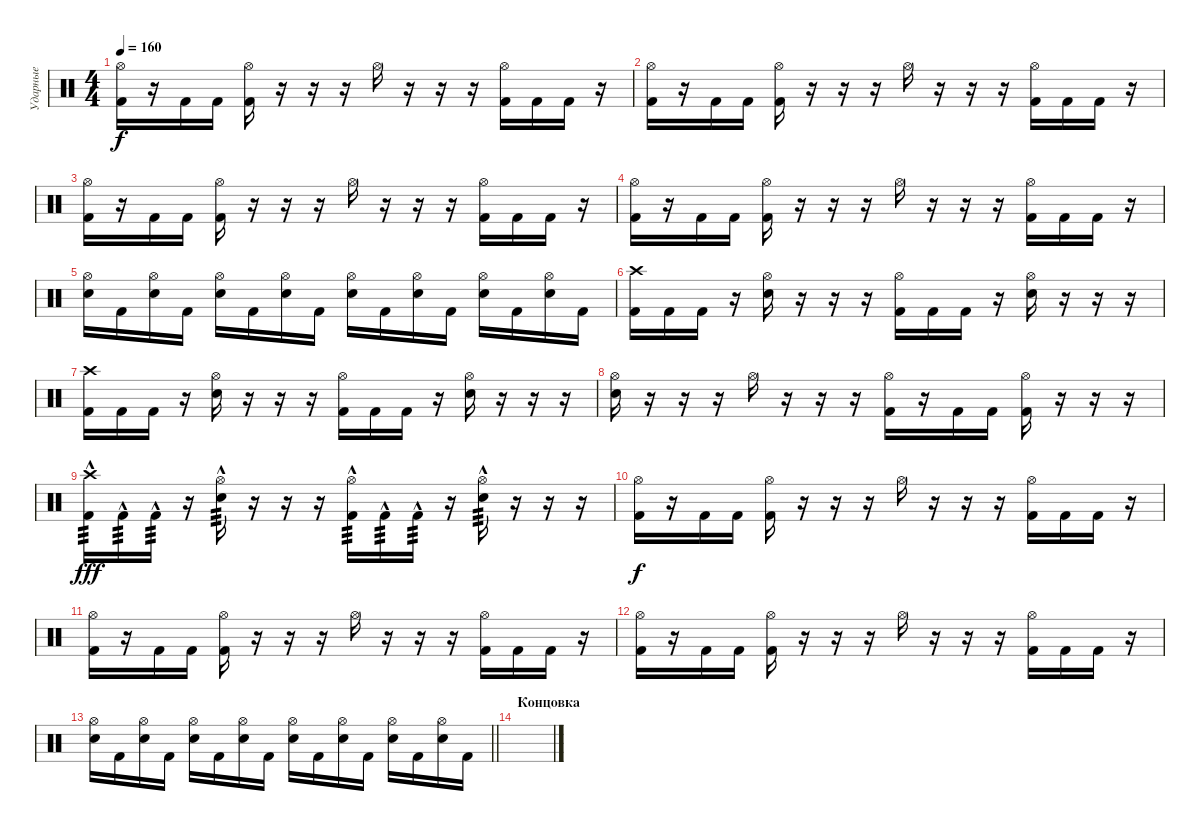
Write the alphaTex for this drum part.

\track ("Ударные" "Ударные") {instrument percussion}
\staff {score}
\articulation defaults
\ts (4 4)
\tempo 160
\clef neutral
\ks c
("Hi-Hat (open)" "Kick (hit) 2").16{dy f} r.16 "Kick (hit) 2".16 "Kick (hit) 2".16 ("Hi-Hat (open)" "Kick (hit) 2").16 r.16 r.16 r.16 "Hi-Hat (open)".16 r.16 r.16 r.16 ("Hi-Hat (open)" "Kick (hit) 2").16 "Kick (hit) 2".16 "Kick (hit) 2".16 r.16 |
("Hi-Hat (open)" "Kick (hit) 2").16 r.16 "Kick (hit) 2".16 "Kick (hit) 2".16 ("Hi-Hat (open)" "Kick (hit) 2").16 r.16 r.16 r.16 "Hi-Hat (open)".16 r.16 r.16 r.16 ("Hi-Hat (open)" "Kick (hit) 2").16 "Kick (hit) 2".16 "Kick (hit) 2".16 r.16 |
("Hi-Hat (open)" "Kick (hit) 2").16 r.16 "Kick (hit) 2".16 "Kick (hit) 2".16 ("Hi-Hat (open)" "Kick (hit) 2").16 r.16 r.16 r.16 "Hi-Hat (open)".16 r.16 r.16 r.16 ("Hi-Hat (open)" "Kick (hit) 2").16 "Kick (hit) 2".16 "Kick (hit) 2".16 r.16 |
("Hi-Hat (open)" "Kick (hit) 2").16 r.16 "Kick (hit) 2".16 "Kick (hit) 2".16 ("Hi-Hat (open)" "Kick (hit) 2").16 r.16 r.16 r.16 "Hi-Hat (open)".16 r.16 r.16 r.16 ("Hi-Hat (open)" "Kick (hit) 2").16 "Kick (hit) 2".16 "Kick (hit) 2".16 r.16 |
("Hi-Hat (open)" "Electric Snare (hit)").16 "Kick (hit) 2".16 ("Hi-Hat (open)" "Electric Snare (hit)").16 "Kick (hit) 2".16 ("Hi-Hat (open)" "Electric Snare (hit)").16 "Kick (hit) 2".16 ("Hi-Hat (open)" "Electric Snare (hit)").16 "Kick (hit) 2".16 ("Hi-Hat (open)" "Electric Snare (hit)").16 "Kick (hit) 2".16 ("Hi-Hat (open)" "Electric Snare (hit)").16 "Kick (hit) 2".16 ("Hi-Hat (open)" "Electric Snare (hit)").16 "Kick (hit) 2".16 ("Hi-Hat (open)" "Electric Snare (hit)").16 "Kick (hit) 2".16 |
("Crash high (hit)" "Kick (hit) 2").16 "Kick (hit) 2".16 "Kick (hit) 2".16 r.16 ("Hi-Hat (open)" "Electric Snare (hit)").16 r.16 r.16 r.16 ("Hi-Hat (open)" "Kick (hit) 2").16 "Kick (hit) 2".16 "Kick (hit) 2".16 r.16 ("Hi-Hat (open)" "Electric Snare (hit)").16 r.16 r.16 r.16 |
("Crash high (hit)" "Kick (hit) 2").16 "Kick (hit) 2".16 "Kick (hit) 2".16 r.16 ("Hi-Hat (open)" "Electric Snare (hit)").16 r.16 r.16 r.16 ("Hi-Hat (open)" "Kick (hit) 2").16 "Kick (hit) 2".16 "Kick (hit) 2".16 r.16 ("Hi-Hat (open)" "Electric Snare (hit)").16 r.16 r.16 r.16 |
("Hi-Hat (open)" "Electric Snare (hit)").16 r.16 r.16 r.16 "Hi-Hat (open)".16 r.16 r.16 r.16 ("Hi-Hat (open)" "Kick (hit) 2").16 r.16 "Kick (hit) 2".16 "Kick (hit) 2".16 ("Hi-Hat (open)" "Kick (hit) 2").16 r.16 r.16 r.16 |
("Crash high (hit)"{hac} "Kick (hit) 2"{hac}).16{tp 3 dy fff} "Kick (hit) 2"{hac}.16{tp 3} "Kick (hit) 2"{hac}.16{tp 3} r.16 ("Hi-Hat (open)"{hac} "Electric Snare (hit)"{hac}).16{tp 3} r.16 r.16 r.16 ("Hi-Hat (open)"{hac} "Kick (hit) 2"{hac}).16{tp 3} "Kick (hit) 2"{hac}.16{tp 3} "Kick (hit) 2"{hac}.16{tp 3} r.16 ("Hi-Hat (open)"{hac} "Electric Snare (hit)"{hac}).16{tp 3} r.16 r.16 r.16 |
("Hi-Hat (open)" "Kick (hit) 2").16{dy f} r.16 "Kick (hit) 2".16 "Kick (hit) 2".16 ("Hi-Hat (open)" "Kick (hit) 2").16 r.16 r.16 r.16 "Hi-Hat (open)".16 r.16 r.16 r.16 ("Hi-Hat (open)" "Kick (hit) 2").16 "Kick (hit) 2".16 "Kick (hit) 2".16 r.16 |
("Hi-Hat (open)" "Kick (hit) 2").16 r.16 "Kick (hit) 2".16 "Kick (hit) 2".16 ("Hi-Hat (open)" "Kick (hit) 2").16 r.16 r.16 r.16 "Hi-Hat (open)".16 r.16 r.16 r.16 ("Hi-Hat (open)" "Kick (hit) 2").16 "Kick (hit) 2".16 "Kick (hit) 2".16 r.16 |
("Hi-Hat (open)" "Kick (hit) 2").16 r.16 "Kick (hit) 2".16 "Kick (hit) 2".16 ("Hi-Hat (open)" "Kick (hit) 2").16 r.16 r.16 r.16 "Hi-Hat (open)".16 r.16 r.16 r.16 ("Hi-Hat (open)" "Kick (hit) 2").16 "Kick (hit) 2".16 "Kick (hit) 2".16 r.16 |
\barLineRight lightlight
("Hi-Hat (open)" "Electric Snare (hit)").16 "Kick (hit) 2".16 ("Hi-Hat (open)" "Electric Snare (hit)").16 "Kick (hit) 2".16 ("Hi-Hat (open)" "Electric Snare (hit)").16 "Kick (hit) 2".16 ("Hi-Hat (open)" "Electric Snare (hit)").16 "Kick (hit) 2".16 ("Hi-Hat (open)" "Electric Snare (hit)").16 "Kick (hit) 2".16 ("Hi-Hat (open)" "Electric Snare (hit)").16 "Kick (hit) 2".16 ("Hi-Hat (open)" "Electric Snare (hit)").16 "Kick (hit) 2".16 ("Hi-Hat (open)" "Electric Snare (hit)").16 "Kick (hit) 2".16 |
\section ("" "Концовка")
